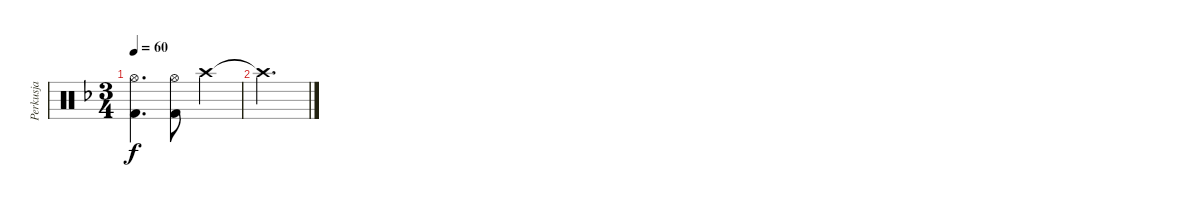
\track ("Perkusja" "Perkusja") {instrument percussion}
\staff {score}
\articulation defaults
\ts (3 4)
\tempo 60
\clef neutral
\ks f
("Kick (hit) 2" "Hi-Hat (open)").4{d dy f} ("Hi-Hat (open)" "Kick (hit) 2").8 "Crash high (hit)".4 |
"Crash high (hit)"{t}.2{d}
